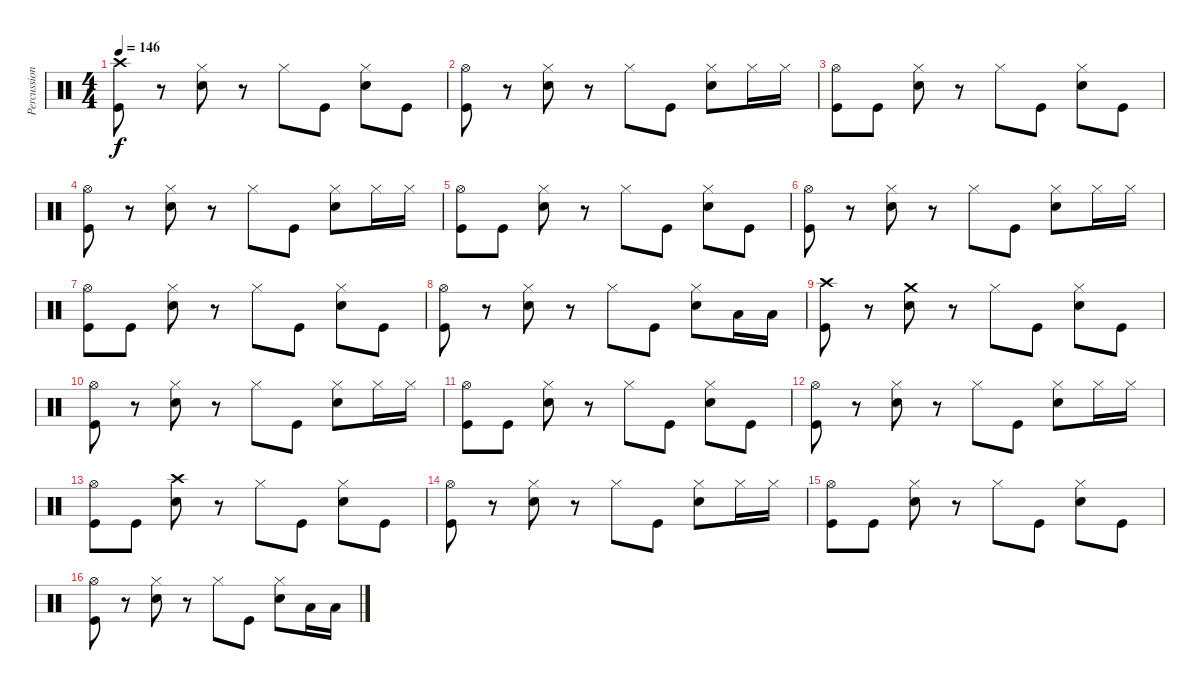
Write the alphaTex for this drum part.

\track ("Percussion" "Percussion") {instrument percussion}
\staff {score}
\articulation defaults
\ts (4 4)
\tempo 146
\clef neutral
\ks c
("Crash high (hit)" "Kick (hit)").8{dy f} r.8 ("Hi-Hat (closed)" "Snare (hit) 2").8 r.8 "Hi-Hat (closed)".8 "Kick (hit)".8 ("Hi-Hat (closed)" "Snare (hit) 2").8 "Kick (hit)".8 |
("Hi-Hat (open)" "Kick (hit)").8 r.8 ("Hi-Hat (closed)" "Snare (hit) 2").8 r.8 "Hi-Hat (closed)".8 "Kick (hit)".8 ("Hi-Hat (closed)" "Snare (hit) 2").8 "Hi-Hat (closed)".16 "Hi-Hat (closed)".16 |
("Hi-Hat (open)" "Kick (hit)").8 "Kick (hit)".8 ("Hi-Hat (closed)" "Snare (hit) 2").8 r.8 "Hi-Hat (closed)".8 "Kick (hit)".8 ("Hi-Hat (closed)" "Snare (hit) 2").8 "Kick (hit)".8 |
("Hi-Hat (open)" "Kick (hit)").8 r.8 ("Hi-Hat (closed)" "Snare (hit) 2").8 r.8 "Hi-Hat (closed)".8 "Kick (hit)".8 ("Hi-Hat (closed)" "Snare (hit) 2").8 "Hi-Hat (closed)".16 "Hi-Hat (closed)".16 |
("Hi-Hat (open)" "Kick (hit)").8 "Kick (hit)".8 ("Hi-Hat (closed)" "Snare (hit) 2").8 r.8 "Hi-Hat (closed)".8 "Kick (hit)".8 ("Hi-Hat (closed)" "Snare (hit) 2").8 "Kick (hit)".8 |
("Hi-Hat (open)" "Kick (hit)").8 r.8 ("Hi-Hat (closed)" "Snare (hit) 2").8 r.8 "Hi-Hat (closed)".8 "Kick (hit)".8 ("Hi-Hat (closed)" "Snare (hit) 2").8 "Hi-Hat (closed)".16 "Hi-Hat (closed)".16 |
("Hi-Hat (open)" "Kick (hit)").8 "Kick (hit)".8 ("Hi-Hat (closed)" "Snare (hit) 2").8 r.8 "Hi-Hat (closed)".8 "Kick (hit)".8 ("Hi-Hat (closed)" "Snare (hit) 2").8 "Kick (hit)".8 |
("Hi-Hat (open)" "Kick (hit)").8 r.8 ("Hi-Hat (closed)" "Snare (hit) 2").8 r.8 "Hi-Hat (closed)".8 "Kick (hit)".8 ("Hi-Hat (closed)" "Snare (hit) 2").8 "Low Floor Tom (hit)".16 "Low Floor Tom (hit)".16 |
("Crash high (hit)" "Kick (hit)").8 r.8 ("Crash medium (hit)" "Snare (hit) 2").8 r.8 "Hi-Hat (closed)".8 "Kick (hit)".8 ("Hi-Hat (closed)" "Snare (hit) 2").8 "Kick (hit)".8 |
("Hi-Hat (open)" "Kick (hit)").8 r.8 ("Hi-Hat (closed)" "Snare (hit) 2").8 r.8 "Hi-Hat (closed)".8 "Kick (hit)".8 ("Hi-Hat (closed)" "Snare (hit) 2").8 "Hi-Hat (closed)".16 "Hi-Hat (closed)".16 |
("Hi-Hat (open)" "Kick (hit)").8 "Kick (hit)".8 ("Hi-Hat (closed)" "Snare (hit) 2").8 r.8 "Hi-Hat (closed)".8 "Kick (hit)".8 ("Hi-Hat (closed)" "Snare (hit) 2").8 "Kick (hit)".8 |
("Hi-Hat (open)" "Kick (hit)").8 r.8 ("Hi-Hat (closed)" "Snare (hit) 2").8 r.8 "Hi-Hat (closed)".8 "Kick (hit)".8 ("Hi-Hat (closed)" "Snare (hit) 2").8 "Hi-Hat (closed)".16 "Hi-Hat (closed)".16 |
("Hi-Hat (open)" "Kick (hit)").8 "Kick (hit)".8 ("Crash high (hit)" "Snare (hit) 2").8 r.8 "Hi-Hat (closed)".8 "Kick (hit)".8 ("Hi-Hat (closed)" "Snare (hit) 2").8 "Kick (hit)".8 |
("Hi-Hat (open)" "Kick (hit)").8 r.8 ("Hi-Hat (closed)" "Snare (hit) 2").8 r.8 "Hi-Hat (closed)".8 "Kick (hit)".8 ("Hi-Hat (closed)" "Snare (hit) 2").8 "Hi-Hat (closed)".16 "Hi-Hat (closed)".16 |
("Hi-Hat (open)" "Kick (hit)").8 "Kick (hit)".8 ("Hi-Hat (closed)" "Snare (hit) 2").8 r.8 "Hi-Hat (closed)".8 "Kick (hit)".8 ("Hi-Hat (closed)" "Snare (hit) 2").8 "Kick (hit)".8 |
("Hi-Hat (open)" "Kick (hit)").8 r.8 ("Hi-Hat (closed)" "Snare (hit) 2").8 r.8 "Hi-Hat (closed)".8 "Kick (hit)".8 ("Hi-Hat (closed)" "Snare (hit) 2").8 "Low Floor Tom (hit)".16 "Low Floor Tom (hit)".16
